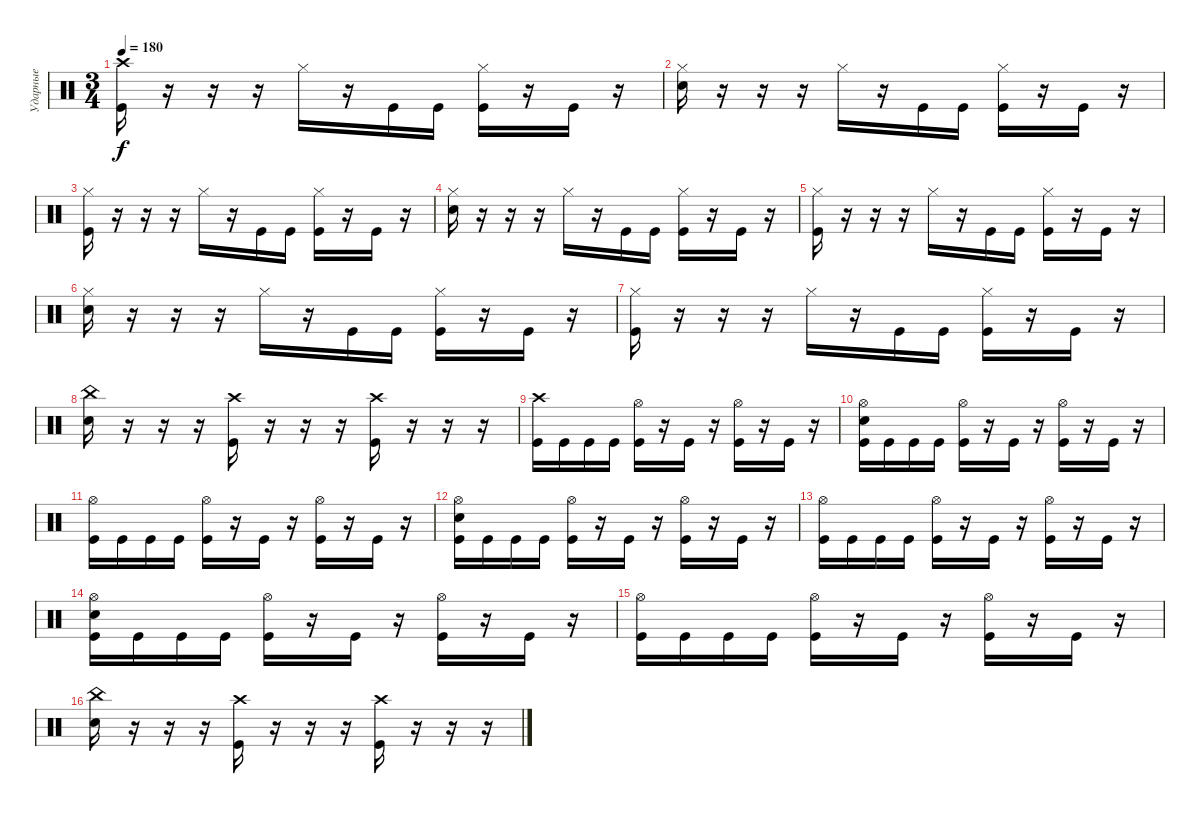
\track ("Ударные" "Ударные") {instrument percussion}
\staff {score}
\articulation defaults
\ts (3 4)
\tempo 180
\clef neutral
\ks c
("Crash high (hit)" "Kick (hit)").16{dy f} r.16 r.16 r.16 "Hi-Hat (closed)".16 r.16 "Kick (hit)".16 "Kick (hit)".16 ("Hi-Hat (closed)" "Kick (hit)").16 r.16 "Kick (hit)".16 r.16 |
("Hi-Hat (closed)" "Electric Snare (hit)").16 r.16 r.16 r.16 "Hi-Hat (closed)".16 r.16 "Kick (hit)".16 "Kick (hit)".16 ("Hi-Hat (closed)" "Kick (hit)").16 r.16 "Kick (hit)".16 r.16 |
("Hi-Hat (closed)" "Kick (hit)").16 r.16 r.16 r.16 "Hi-Hat (closed)".16 r.16 "Kick (hit)".16 "Kick (hit)".16 ("Hi-Hat (closed)" "Kick (hit)").16 r.16 "Kick (hit)".16 r.16 |
("Hi-Hat (closed)" "Electric Snare (hit)").16 r.16 r.16 r.16 "Hi-Hat (closed)".16 r.16 "Kick (hit)".16 "Kick (hit)".16 ("Hi-Hat (closed)" "Kick (hit)").16 r.16 "Kick (hit)".16 r.16 |
("Hi-Hat (closed)" "Kick (hit)").16 r.16 r.16 r.16 "Hi-Hat (closed)".16 r.16 "Kick (hit)".16 "Kick (hit)".16 ("Hi-Hat (closed)" "Kick (hit)").16 r.16 "Kick (hit)".16 r.16 |
("Hi-Hat (closed)" "Electric Snare (hit)").16 r.16 r.16 r.16 "Hi-Hat (closed)".16 r.16 "Kick (hit)".16 "Kick (hit)".16 ("Hi-Hat (closed)" "Kick (hit)").16 r.16 "Kick (hit)".16 r.16 |
("Hi-Hat (closed)" "Kick (hit)").16 r.16 r.16 r.16 "Hi-Hat (closed)".16 r.16 "Kick (hit)".16 "Kick (hit)".16 ("Hi-Hat (closed)" "Kick (hit)").16 r.16 "Kick (hit)".16 r.16 |
("China (hit)" "Electric Snare (hit)").16 r.16 r.16 r.16 ("Crash high (hit)" "Kick (hit)").16 r.16 r.16 r.16 ("Crash high (hit)" "Kick (hit)").16 r.16 r.16 r.16 |
("Crash high (hit)" "Kick (hit)").16 "Kick (hit)".16 "Kick (hit)".16 "Kick (hit)".16 ("Hi-Hat (open)" "Kick (hit)").16 r.16 "Kick (hit)".16 r.16 ("Hi-Hat (open)" "Kick (hit)").16 r.16 "Kick (hit)".16 r.16 |
("Hi-Hat (open)" "Electric Snare (hit)" "Kick (hit)").16 "Kick (hit)".16 "Kick (hit)".16 "Kick (hit)".16 ("Hi-Hat (open)" "Kick (hit)").16 r.16 "Kick (hit)".16 r.16 ("Hi-Hat (open)" "Kick (hit)").16 r.16 "Kick (hit)".16 r.16 |
("Hi-Hat (open)" "Kick (hit)").16 "Kick (hit)".16 "Kick (hit)".16 "Kick (hit)".16 ("Hi-Hat (open)" "Kick (hit)").16 r.16 "Kick (hit)".16 r.16 ("Hi-Hat (open)" "Kick (hit)").16 r.16 "Kick (hit)".16 r.16 |
("Hi-Hat (open)" "Electric Snare (hit)" "Kick (hit)").16 "Kick (hit)".16 "Kick (hit)".16 "Kick (hit)".16 ("Hi-Hat (open)" "Kick (hit)").16 r.16 "Kick (hit)".16 r.16 ("Hi-Hat (open)" "Kick (hit)").16 r.16 "Kick (hit)".16 r.16 |
("Hi-Hat (open)" "Kick (hit)").16 "Kick (hit)".16 "Kick (hit)".16 "Kick (hit)".16 ("Hi-Hat (open)" "Kick (hit)").16 r.16 "Kick (hit)".16 r.16 ("Hi-Hat (open)" "Kick (hit)").16 r.16 "Kick (hit)".16 r.16 |
("Hi-Hat (open)" "Electric Snare (hit)" "Kick (hit)").16 "Kick (hit)".16 "Kick (hit)".16 "Kick (hit)".16 ("Hi-Hat (open)" "Kick (hit)").16 r.16 "Kick (hit)".16 r.16 ("Hi-Hat (open)" "Kick (hit)").16 r.16 "Kick (hit)".16 r.16 |
("Hi-Hat (open)" "Kick (hit)").16 "Kick (hit)".16 "Kick (hit)".16 "Kick (hit)".16 ("Hi-Hat (open)" "Kick (hit)").16 r.16 "Kick (hit)".16 r.16 ("Hi-Hat (open)" "Kick (hit)").16 r.16 "Kick (hit)".16 r.16 |
("China (hit)" "Electric Snare (hit)").16 r.16 r.16 r.16 ("Crash high (hit)" "Kick (hit)").16 r.16 r.16 r.16 ("Crash high (hit)" "Kick (hit)").16 r.16 r.16 r.16
